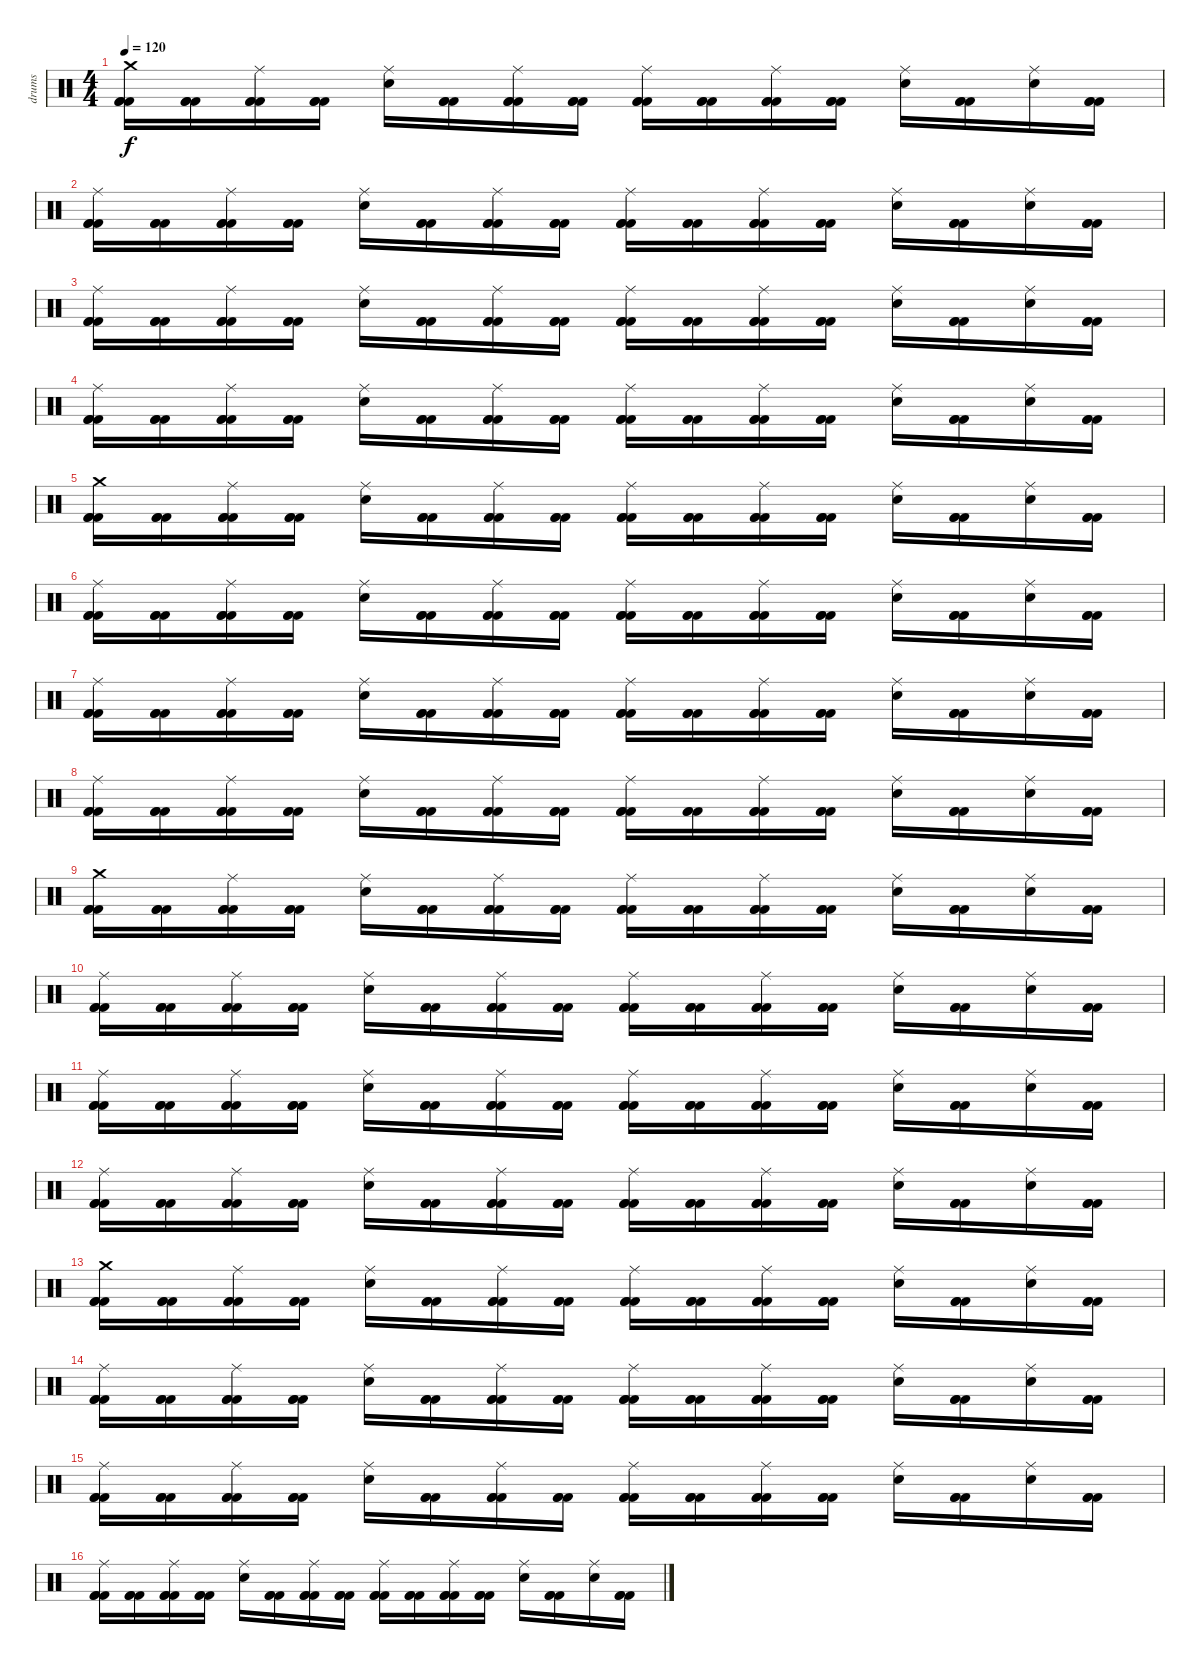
\track ("drums" "drums") {instrument percussion}
\staff {score}
\articulation defaults
\ts (4 4)
\tempo 120
\clef neutral
\ks c
("Crash medium (hit)" "Kick (hit) 2" "Kick (hit) 2" "Kick (hit) 2").16{dy f} ("Kick (hit) 2" "Kick (hit) 2" "Kick (hit) 2").16 ("Ride (middle)" "Kick (hit) 2" "Kick (hit) 2" "Kick (hit) 2").16 ("Kick (hit) 2" "Kick (hit) 2" "Kick (hit) 2").16 ("Ride (middle)" "Electric Snare (hit)").16 ("Kick (hit) 2" "Kick (hit) 2" "Kick (hit) 2").16 ("Ride (middle)" "Kick (hit) 2" "Kick (hit) 2" "Kick (hit) 2").16 ("Kick (hit) 2" "Kick (hit) 2" "Kick (hit) 2").16 ("Ride (middle)" "Kick (hit) 2" "Kick (hit) 2" "Kick (hit) 2").16 ("Kick (hit) 2" "Kick (hit) 2" "Kick (hit) 2").16 ("Ride (middle)" "Kick (hit) 2" "Kick (hit) 2" "Kick (hit) 2").16 ("Kick (hit) 2" "Kick (hit) 2" "Kick (hit) 2").16 ("Ride (middle)" "Electric Snare (hit)").16 ("Kick (hit) 2" "Kick (hit) 2" "Kick (hit) 2").16 ("Ride (middle)" "Electric Snare (hit)").16 ("Kick (hit) 2" "Kick (hit) 2" "Kick (hit) 2").16 |
("Ride (middle)" "Kick (hit) 2" "Kick (hit) 2" "Kick (hit) 2").16 ("Kick (hit) 2" "Kick (hit) 2" "Kick (hit) 2").16 ("Ride (middle)" "Kick (hit) 2" "Kick (hit) 2" "Kick (hit) 2").16 ("Kick (hit) 2" "Kick (hit) 2" "Kick (hit) 2").16 ("Ride (middle)" "Electric Snare (hit)").16 ("Kick (hit) 2" "Kick (hit) 2" "Kick (hit) 2").16 ("Ride (middle)" "Kick (hit) 2" "Kick (hit) 2" "Kick (hit) 2").16 ("Kick (hit) 2" "Kick (hit) 2" "Kick (hit) 2").16 ("Ride (middle)" "Kick (hit) 2" "Kick (hit) 2" "Kick (hit) 2").16 ("Kick (hit) 2" "Kick (hit) 2" "Kick (hit) 2").16 ("Ride (middle)" "Kick (hit) 2" "Kick (hit) 2" "Kick (hit) 2").16 ("Kick (hit) 2" "Kick (hit) 2" "Kick (hit) 2").16 ("Ride (middle)" "Electric Snare (hit)").16 ("Kick (hit) 2" "Kick (hit) 2" "Kick (hit) 2").16 ("Ride (middle)" "Electric Snare (hit)").16 ("Kick (hit) 2" "Kick (hit) 2" "Kick (hit) 2").16 |
("Ride (middle)" "Kick (hit) 2" "Kick (hit) 2" "Kick (hit) 2").16 ("Kick (hit) 2" "Kick (hit) 2" "Kick (hit) 2").16 ("Ride (middle)" "Kick (hit) 2" "Kick (hit) 2" "Kick (hit) 2").16 ("Kick (hit) 2" "Kick (hit) 2" "Kick (hit) 2").16 ("Ride (middle)" "Electric Snare (hit)").16 ("Kick (hit) 2" "Kick (hit) 2" "Kick (hit) 2").16 ("Ride (middle)" "Kick (hit) 2" "Kick (hit) 2" "Kick (hit) 2").16 ("Kick (hit) 2" "Kick (hit) 2" "Kick (hit) 2").16 ("Ride (middle)" "Kick (hit) 2" "Kick (hit) 2" "Kick (hit) 2").16 ("Kick (hit) 2" "Kick (hit) 2" "Kick (hit) 2").16 ("Ride (middle)" "Kick (hit) 2" "Kick (hit) 2" "Kick (hit) 2").16 ("Kick (hit) 2" "Kick (hit) 2" "Kick (hit) 2").16 ("Ride (middle)" "Electric Snare (hit)").16 ("Kick (hit) 2" "Kick (hit) 2" "Kick (hit) 2").16 ("Ride (middle)" "Electric Snare (hit)").16 ("Kick (hit) 2" "Kick (hit) 2" "Kick (hit) 2").16 |
("Ride (middle)" "Kick (hit) 2" "Kick (hit) 2" "Kick (hit) 2").16 ("Kick (hit) 2" "Kick (hit) 2" "Kick (hit) 2").16 ("Ride (middle)" "Kick (hit) 2" "Kick (hit) 2" "Kick (hit) 2").16 ("Kick (hit) 2" "Kick (hit) 2" "Kick (hit) 2").16 ("Ride (middle)" "Electric Snare (hit)").16 ("Kick (hit) 2" "Kick (hit) 2" "Kick (hit) 2").16 ("Ride (middle)" "Kick (hit) 2" "Kick (hit) 2" "Kick (hit) 2").16 ("Kick (hit) 2" "Kick (hit) 2" "Kick (hit) 2").16 ("Ride (middle)" "Kick (hit) 2" "Kick (hit) 2" "Kick (hit) 2").16 ("Kick (hit) 2" "Kick (hit) 2" "Kick (hit) 2").16 ("Ride (middle)" "Kick (hit) 2" "Kick (hit) 2" "Kick (hit) 2").16 ("Kick (hit) 2" "Kick (hit) 2" "Kick (hit) 2").16 ("Ride (middle)" "Electric Snare (hit)").16 ("Kick (hit) 2" "Kick (hit) 2" "Kick (hit) 2").16 ("Ride (middle)" "Electric Snare (hit)").16 ("Kick (hit) 2" "Kick (hit) 2" "Kick (hit) 2").16 |
("Crash medium (hit)" "Kick (hit) 2" "Kick (hit) 2" "Kick (hit) 2").16 ("Kick (hit) 2" "Kick (hit) 2" "Kick (hit) 2").16 ("Ride (middle)" "Kick (hit) 2" "Kick (hit) 2" "Kick (hit) 2").16 ("Kick (hit) 2" "Kick (hit) 2" "Kick (hit) 2").16 ("Ride (middle)" "Electric Snare (hit)").16 ("Kick (hit) 2" "Kick (hit) 2" "Kick (hit) 2").16 ("Ride (middle)" "Kick (hit) 2" "Kick (hit) 2" "Kick (hit) 2").16 ("Kick (hit) 2" "Kick (hit) 2" "Kick (hit) 2").16 ("Ride (middle)" "Kick (hit) 2" "Kick (hit) 2" "Kick (hit) 2").16 ("Kick (hit) 2" "Kick (hit) 2" "Kick (hit) 2").16 ("Ride (middle)" "Kick (hit) 2" "Kick (hit) 2" "Kick (hit) 2").16 ("Kick (hit) 2" "Kick (hit) 2" "Kick (hit) 2").16 ("Ride (middle)" "Electric Snare (hit)").16 ("Kick (hit) 2" "Kick (hit) 2" "Kick (hit) 2").16 ("Ride (middle)" "Electric Snare (hit)").16 ("Kick (hit) 2" "Kick (hit) 2" "Kick (hit) 2").16 |
("Ride (middle)" "Kick (hit) 2" "Kick (hit) 2" "Kick (hit) 2").16 ("Kick (hit) 2" "Kick (hit) 2" "Kick (hit) 2").16 ("Ride (middle)" "Kick (hit) 2" "Kick (hit) 2" "Kick (hit) 2").16 ("Kick (hit) 2" "Kick (hit) 2" "Kick (hit) 2").16 ("Ride (middle)" "Electric Snare (hit)").16 ("Kick (hit) 2" "Kick (hit) 2" "Kick (hit) 2").16 ("Ride (middle)" "Kick (hit) 2" "Kick (hit) 2" "Kick (hit) 2").16 ("Kick (hit) 2" "Kick (hit) 2" "Kick (hit) 2").16 ("Ride (middle)" "Kick (hit) 2" "Kick (hit) 2" "Kick (hit) 2").16 ("Kick (hit) 2" "Kick (hit) 2" "Kick (hit) 2").16 ("Ride (middle)" "Kick (hit) 2" "Kick (hit) 2" "Kick (hit) 2").16 ("Kick (hit) 2" "Kick (hit) 2" "Kick (hit) 2").16 ("Ride (middle)" "Electric Snare (hit)").16 ("Kick (hit) 2" "Kick (hit) 2" "Kick (hit) 2").16 ("Ride (middle)" "Electric Snare (hit)").16 ("Kick (hit) 2" "Kick (hit) 2" "Kick (hit) 2").16 |
("Ride (middle)" "Kick (hit) 2" "Kick (hit) 2" "Kick (hit) 2").16 ("Kick (hit) 2" "Kick (hit) 2" "Kick (hit) 2").16 ("Ride (middle)" "Kick (hit) 2" "Kick (hit) 2" "Kick (hit) 2").16 ("Kick (hit) 2" "Kick (hit) 2" "Kick (hit) 2").16 ("Ride (middle)" "Electric Snare (hit)").16 ("Kick (hit) 2" "Kick (hit) 2" "Kick (hit) 2").16 ("Ride (middle)" "Kick (hit) 2" "Kick (hit) 2" "Kick (hit) 2").16 ("Kick (hit) 2" "Kick (hit) 2" "Kick (hit) 2").16 ("Ride (middle)" "Kick (hit) 2" "Kick (hit) 2" "Kick (hit) 2").16 ("Kick (hit) 2" "Kick (hit) 2" "Kick (hit) 2").16 ("Ride (middle)" "Kick (hit) 2" "Kick (hit) 2" "Kick (hit) 2").16 ("Kick (hit) 2" "Kick (hit) 2" "Kick (hit) 2").16 ("Ride (middle)" "Electric Snare (hit)").16 ("Kick (hit) 2" "Kick (hit) 2" "Kick (hit) 2").16 ("Ride (middle)" "Electric Snare (hit)").16 ("Kick (hit) 2" "Kick (hit) 2" "Kick (hit) 2").16 |
("Ride (middle)" "Kick (hit) 2" "Kick (hit) 2" "Kick (hit) 2").16 ("Kick (hit) 2" "Kick (hit) 2" "Kick (hit) 2").16 ("Ride (middle)" "Kick (hit) 2" "Kick (hit) 2" "Kick (hit) 2").16 ("Kick (hit) 2" "Kick (hit) 2" "Kick (hit) 2").16 ("Ride (middle)" "Electric Snare (hit)").16 ("Kick (hit) 2" "Kick (hit) 2" "Kick (hit) 2").16 ("Ride (middle)" "Kick (hit) 2" "Kick (hit) 2" "Kick (hit) 2").16 ("Kick (hit) 2" "Kick (hit) 2" "Kick (hit) 2").16 ("Ride (middle)" "Kick (hit) 2" "Kick (hit) 2" "Kick (hit) 2").16 ("Kick (hit) 2" "Kick (hit) 2" "Kick (hit) 2").16 ("Ride (middle)" "Kick (hit) 2" "Kick (hit) 2" "Kick (hit) 2").16 ("Kick (hit) 2" "Kick (hit) 2" "Kick (hit) 2").16 ("Ride (middle)" "Electric Snare (hit)").16 ("Kick (hit) 2" "Kick (hit) 2" "Kick (hit) 2").16 ("Ride (middle)" "Electric Snare (hit)").16 ("Kick (hit) 2" "Kick (hit) 2" "Kick (hit) 2").16 |
("Crash medium (hit)" "Kick (hit) 2" "Kick (hit) 2" "Kick (hit) 2").16 ("Kick (hit) 2" "Kick (hit) 2" "Kick (hit) 2").16 ("Ride (middle)" "Kick (hit) 2" "Kick (hit) 2" "Kick (hit) 2").16 ("Kick (hit) 2" "Kick (hit) 2" "Kick (hit) 2").16 ("Ride (middle)" "Electric Snare (hit)").16 ("Kick (hit) 2" "Kick (hit) 2" "Kick (hit) 2").16 ("Ride (middle)" "Kick (hit) 2" "Kick (hit) 2" "Kick (hit) 2").16 ("Kick (hit) 2" "Kick (hit) 2" "Kick (hit) 2").16 ("Ride (middle)" "Kick (hit) 2" "Kick (hit) 2" "Kick (hit) 2").16 ("Kick (hit) 2" "Kick (hit) 2" "Kick (hit) 2").16 ("Ride (middle)" "Kick (hit) 2" "Kick (hit) 2" "Kick (hit) 2").16 ("Kick (hit) 2" "Kick (hit) 2" "Kick (hit) 2").16 ("Ride (middle)" "Electric Snare (hit)").16 ("Kick (hit) 2" "Kick (hit) 2" "Kick (hit) 2").16 ("Ride (middle)" "Electric Snare (hit)").16 ("Kick (hit) 2" "Kick (hit) 2" "Kick (hit) 2").16 |
("Ride (middle)" "Kick (hit) 2" "Kick (hit) 2" "Kick (hit) 2").16 ("Kick (hit) 2" "Kick (hit) 2" "Kick (hit) 2").16 ("Ride (middle)" "Kick (hit) 2" "Kick (hit) 2" "Kick (hit) 2").16 ("Kick (hit) 2" "Kick (hit) 2" "Kick (hit) 2").16 ("Ride (middle)" "Electric Snare (hit)").16 ("Kick (hit) 2" "Kick (hit) 2" "Kick (hit) 2").16 ("Ride (middle)" "Kick (hit) 2" "Kick (hit) 2" "Kick (hit) 2").16 ("Kick (hit) 2" "Kick (hit) 2" "Kick (hit) 2").16 ("Ride (middle)" "Kick (hit) 2" "Kick (hit) 2" "Kick (hit) 2").16 ("Kick (hit) 2" "Kick (hit) 2" "Kick (hit) 2").16 ("Ride (middle)" "Kick (hit) 2" "Kick (hit) 2" "Kick (hit) 2").16 ("Kick (hit) 2" "Kick (hit) 2" "Kick (hit) 2").16 ("Ride (middle)" "Electric Snare (hit)").16 ("Kick (hit) 2" "Kick (hit) 2" "Kick (hit) 2").16 ("Ride (middle)" "Electric Snare (hit)").16 ("Kick (hit) 2" "Kick (hit) 2" "Kick (hit) 2").16 |
("Ride (middle)" "Kick (hit) 2" "Kick (hit) 2" "Kick (hit) 2").16 ("Kick (hit) 2" "Kick (hit) 2" "Kick (hit) 2").16 ("Ride (middle)" "Kick (hit) 2" "Kick (hit) 2" "Kick (hit) 2").16 ("Kick (hit) 2" "Kick (hit) 2" "Kick (hit) 2").16 ("Ride (middle)" "Electric Snare (hit)").16 ("Kick (hit) 2" "Kick (hit) 2" "Kick (hit) 2").16 ("Ride (middle)" "Kick (hit) 2" "Kick (hit) 2" "Kick (hit) 2").16 ("Kick (hit) 2" "Kick (hit) 2" "Kick (hit) 2").16 ("Ride (middle)" "Kick (hit) 2" "Kick (hit) 2" "Kick (hit) 2").16 ("Kick (hit) 2" "Kick (hit) 2" "Kick (hit) 2").16 ("Ride (middle)" "Kick (hit) 2" "Kick (hit) 2" "Kick (hit) 2").16 ("Kick (hit) 2" "Kick (hit) 2" "Kick (hit) 2").16 ("Ride (middle)" "Electric Snare (hit)").16 ("Kick (hit) 2" "Kick (hit) 2" "Kick (hit) 2").16 ("Ride (middle)" "Electric Snare (hit)").16 ("Kick (hit) 2" "Kick (hit) 2" "Kick (hit) 2").16 |
("Ride (middle)" "Kick (hit) 2" "Kick (hit) 2" "Kick (hit) 2").16 ("Kick (hit) 2" "Kick (hit) 2" "Kick (hit) 2").16 ("Ride (middle)" "Kick (hit) 2" "Kick (hit) 2" "Kick (hit) 2").16 ("Kick (hit) 2" "Kick (hit) 2" "Kick (hit) 2").16 ("Ride (middle)" "Electric Snare (hit)").16 ("Kick (hit) 2" "Kick (hit) 2" "Kick (hit) 2").16 ("Ride (middle)" "Kick (hit) 2" "Kick (hit) 2" "Kick (hit) 2").16 ("Kick (hit) 2" "Kick (hit) 2" "Kick (hit) 2").16 ("Ride (middle)" "Kick (hit) 2" "Kick (hit) 2" "Kick (hit) 2").16 ("Kick (hit) 2" "Kick (hit) 2" "Kick (hit) 2").16 ("Ride (middle)" "Kick (hit) 2" "Kick (hit) 2" "Kick (hit) 2").16 ("Kick (hit) 2" "Kick (hit) 2" "Kick (hit) 2").16 ("Ride (middle)" "Electric Snare (hit)").16 ("Kick (hit) 2" "Kick (hit) 2" "Kick (hit) 2").16 ("Ride (middle)" "Electric Snare (hit)").16 ("Kick (hit) 2" "Kick (hit) 2" "Kick (hit) 2").16 |
("Crash medium (hit)" "Kick (hit) 2" "Kick (hit) 2" "Kick (hit) 2").16 ("Kick (hit) 2" "Kick (hit) 2" "Kick (hit) 2").16 ("Ride (middle)" "Kick (hit) 2" "Kick (hit) 2" "Kick (hit) 2").16 ("Kick (hit) 2" "Kick (hit) 2" "Kick (hit) 2").16 ("Ride (middle)" "Electric Snare (hit)").16 ("Kick (hit) 2" "Kick (hit) 2" "Kick (hit) 2").16 ("Ride (middle)" "Kick (hit) 2" "Kick (hit) 2" "Kick (hit) 2").16 ("Kick (hit) 2" "Kick (hit) 2" "Kick (hit) 2").16 ("Ride (middle)" "Kick (hit) 2" "Kick (hit) 2" "Kick (hit) 2").16 ("Kick (hit) 2" "Kick (hit) 2" "Kick (hit) 2").16 ("Ride (middle)" "Kick (hit) 2" "Kick (hit) 2" "Kick (hit) 2").16 ("Kick (hit) 2" "Kick (hit) 2" "Kick (hit) 2").16 ("Ride (middle)" "Electric Snare (hit)").16 ("Kick (hit) 2" "Kick (hit) 2" "Kick (hit) 2").16 ("Ride (middle)" "Electric Snare (hit)").16 ("Kick (hit) 2" "Kick (hit) 2" "Kick (hit) 2").16 |
("Ride (middle)" "Kick (hit) 2" "Kick (hit) 2" "Kick (hit) 2").16 ("Kick (hit) 2" "Kick (hit) 2" "Kick (hit) 2").16 ("Ride (middle)" "Kick (hit) 2" "Kick (hit) 2" "Kick (hit) 2").16 ("Kick (hit) 2" "Kick (hit) 2" "Kick (hit) 2").16 ("Ride (middle)" "Electric Snare (hit)").16 ("Kick (hit) 2" "Kick (hit) 2" "Kick (hit) 2").16 ("Ride (middle)" "Kick (hit) 2" "Kick (hit) 2" "Kick (hit) 2").16 ("Kick (hit) 2" "Kick (hit) 2" "Kick (hit) 2").16 ("Ride (middle)" "Kick (hit) 2" "Kick (hit) 2" "Kick (hit) 2").16 ("Kick (hit) 2" "Kick (hit) 2" "Kick (hit) 2").16 ("Ride (middle)" "Kick (hit) 2" "Kick (hit) 2" "Kick (hit) 2").16 ("Kick (hit) 2" "Kick (hit) 2" "Kick (hit) 2").16 ("Ride (middle)" "Electric Snare (hit)").16 ("Kick (hit) 2" "Kick (hit) 2" "Kick (hit) 2").16 ("Ride (middle)" "Electric Snare (hit)").16 ("Kick (hit) 2" "Kick (hit) 2" "Kick (hit) 2").16 |
("Ride (middle)" "Kick (hit) 2" "Kick (hit) 2" "Kick (hit) 2").16 ("Kick (hit) 2" "Kick (hit) 2" "Kick (hit) 2").16 ("Ride (middle)" "Kick (hit) 2" "Kick (hit) 2" "Kick (hit) 2").16 ("Kick (hit) 2" "Kick (hit) 2" "Kick (hit) 2").16 ("Ride (middle)" "Electric Snare (hit)").16 ("Kick (hit) 2" "Kick (hit) 2" "Kick (hit) 2").16 ("Ride (middle)" "Kick (hit) 2" "Kick (hit) 2" "Kick (hit) 2").16 ("Kick (hit) 2" "Kick (hit) 2" "Kick (hit) 2").16 ("Ride (middle)" "Kick (hit) 2" "Kick (hit) 2" "Kick (hit) 2").16 ("Kick (hit) 2" "Kick (hit) 2" "Kick (hit) 2").16 ("Ride (middle)" "Kick (hit) 2" "Kick (hit) 2" "Kick (hit) 2").16 ("Kick (hit) 2" "Kick (hit) 2" "Kick (hit) 2").16 ("Ride (middle)" "Electric Snare (hit)").16 ("Kick (hit) 2" "Kick (hit) 2" "Kick (hit) 2").16 ("Ride (middle)" "Electric Snare (hit)").16 ("Kick (hit) 2" "Kick (hit) 2" "Kick (hit) 2").16 |
("Ride (middle)" "Kick (hit) 2" "Kick (hit) 2" "Kick (hit) 2").16 ("Kick (hit) 2" "Kick (hit) 2" "Kick (hit) 2").16 ("Ride (middle)" "Kick (hit) 2" "Kick (hit) 2" "Kick (hit) 2").16 ("Kick (hit) 2" "Kick (hit) 2" "Kick (hit) 2").16 ("Ride (middle)" "Electric Snare (hit)").16 ("Kick (hit) 2" "Kick (hit) 2" "Kick (hit) 2").16 ("Ride (middle)" "Kick (hit) 2" "Kick (hit) 2" "Kick (hit) 2").16 ("Kick (hit) 2" "Kick (hit) 2" "Kick (hit) 2").16 ("Ride (middle)" "Kick (hit) 2" "Kick (hit) 2" "Kick (hit) 2").16 ("Kick (hit) 2" "Kick (hit) 2" "Kick (hit) 2").16 ("Ride (middle)" "Kick (hit) 2" "Kick (hit) 2" "Kick (hit) 2").16 ("Kick (hit) 2" "Kick (hit) 2" "Kick (hit) 2").16 ("Ride (middle)" "Electric Snare (hit)").16 ("Kick (hit) 2" "Kick (hit) 2" "Kick (hit) 2").16 ("Ride (middle)" "Electric Snare (hit)").16 ("Kick (hit) 2" "Kick (hit) 2" "Kick (hit) 2").16
